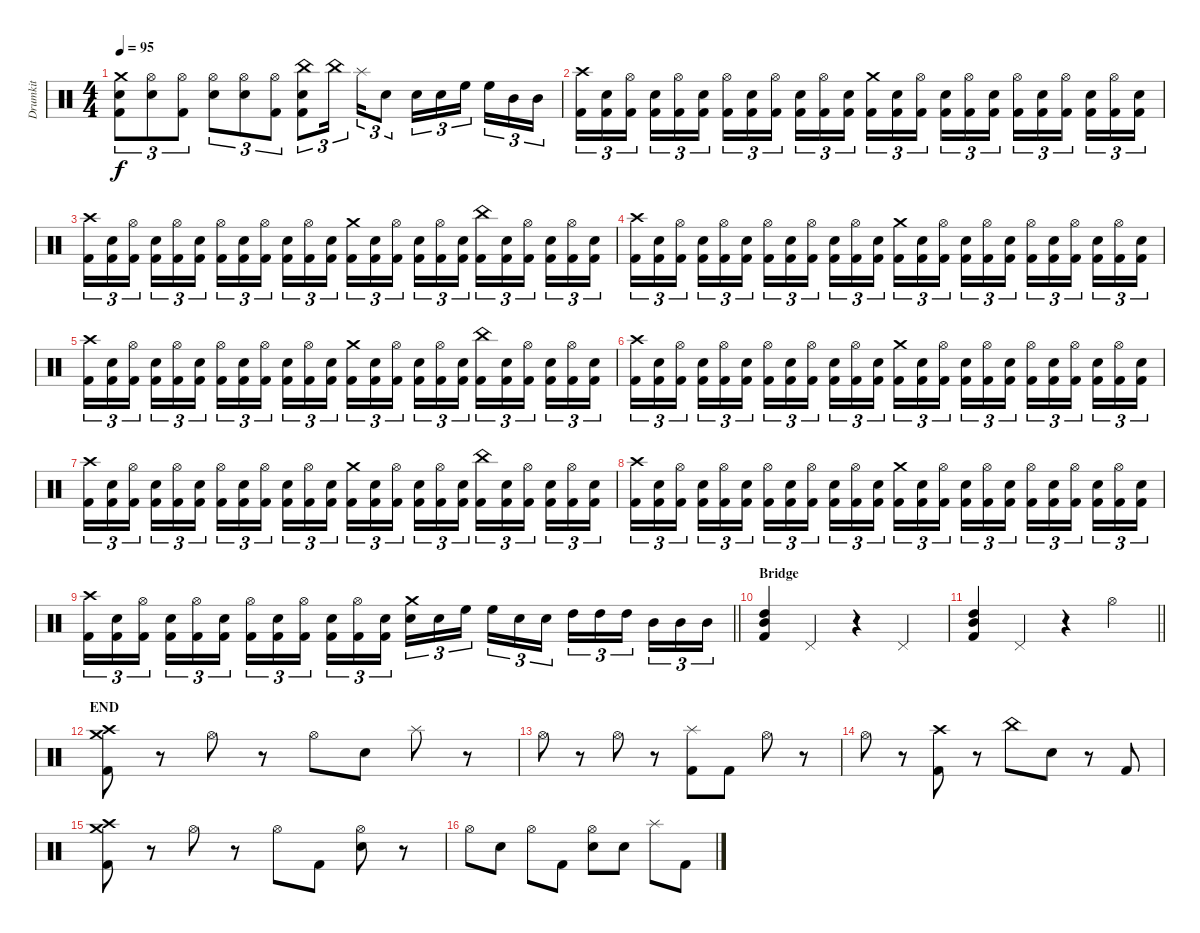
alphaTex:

\track ("Drumkit" "Drumkit") {instrument percussion}
\staff {score}
\articulation defaults
\ts (4 4)
\tempo 95
\clef neutral
\ks c
("Crash medium (hit)" "Electric Snare (hit)" "Kick (hit) 2").8{tu (3 2) dy f} ("Hi-Hat (open)" "Electric Snare (hit)").8{tu (3 2)} ("Hi-Hat (open)" "Kick (hit) 2").8{tu (3 2)} ("Hi-Hat (open)" "Electric Snare (hit)").8{tu (3 2)} ("Hi-Hat (open)" "Electric Snare (hit)").8{tu (3 2)} ("Hi-Hat (open)" "Kick (hit) 2").8{tu (3 2)} ("China (hit)" "Electric Snare (hit)" "Kick (hit) 2").8{tu (3 2)} "China (hit)".16{tu (3 2) beam splitsecondary} "Splash (hit)".16{tu (3 2)} "Electric Snare (hit)".8{tu (3 2)} "Electric Snare (hit)".16{tu (3 2)} "Electric Snare (hit)".16{tu (3 2)} "High Floor Tom (hit)".16{tu (3 2) beam splitsecondary} "High Floor Tom (hit)".16{tu (3 2)} "Mid Tom (hit)".16{tu (3 2)} "Mid Tom (hit)".16{tu (3 2)} |
("Crash high (hit)" "Kick (hit) 2").16{tu (3 2)} ("Electric Snare (hit)" "Kick (hit) 2").16{tu (3 2)} ("Hi-Hat (open)" "Kick (hit) 2").16{tu (3 2) beam splitsecondary} ("Electric Snare (hit)" "Kick (hit) 2").16{tu (3 2)} ("Hi-Hat (open)" "Kick (hit) 2").16{tu (3 2)} ("Electric Snare (hit)" "Kick (hit) 2").16{tu (3 2)} ("Hi-Hat (open)" "Kick (hit) 2").16{tu (3 2)} ("Electric Snare (hit)" "Kick (hit) 2").16{tu (3 2)} ("Hi-Hat (open)" "Kick (hit) 2").16{tu (3 2) beam splitsecondary} ("Electric Snare (hit)" "Kick (hit) 2").16{tu (3 2)} ("Hi-Hat (open)" "Kick (hit) 2").16{tu (3 2)} ("Electric Snare (hit)" "Kick (hit) 2").16{tu (3 2)} ("Crash medium (hit)" "Kick (hit) 2").16{tu (3 2)} ("Electric Snare (hit)" "Kick (hit) 2").16{tu (3 2)} ("Hi-Hat (open)" "Kick (hit) 2").16{tu (3 2) beam splitsecondary} ("Electric Snare (hit)" "Kick (hit) 2").16{tu (3 2)} ("Hi-Hat (open)" "Kick (hit) 2").16{tu (3 2)} ("Electric Snare (hit)" "Kick (hit) 2").16{tu (3 2)} ("Hi-Hat (open)" "Kick (hit) 2").16{tu (3 2)} ("Electric Snare (hit)" "Kick (hit) 2").16{tu (3 2)} ("Hi-Hat (open)" "Kick (hit) 2").16{tu (3 2) beam splitsecondary} ("Electric Snare (hit)" "Kick (hit) 2").16{tu (3 2)} ("Hi-Hat (open)" "Kick (hit) 2").16{tu (3 2)} ("Electric Snare (hit)" "Kick (hit) 2").16{tu (3 2)} |
("Crash high (hit)" "Kick (hit) 2").16{tu (3 2)} ("Electric Snare (hit)" "Kick (hit) 2").16{tu (3 2)} ("Hi-Hat (open)" "Kick (hit) 2").16{tu (3 2) beam splitsecondary} ("Electric Snare (hit)" "Kick (hit) 2").16{tu (3 2)} ("Hi-Hat (open)" "Kick (hit) 2").16{tu (3 2)} ("Electric Snare (hit)" "Kick (hit) 2").16{tu (3 2)} ("Hi-Hat (open)" "Kick (hit) 2").16{tu (3 2)} ("Electric Snare (hit)" "Kick (hit) 2").16{tu (3 2)} ("Hi-Hat (open)" "Kick (hit) 2").16{tu (3 2) beam splitsecondary} ("Electric Snare (hit)" "Kick (hit) 2").16{tu (3 2)} ("Hi-Hat (open)" "Kick (hit) 2").16{tu (3 2)} ("Electric Snare (hit)" "Kick (hit) 2").16{tu (3 2)} ("Crash medium (hit)" "Kick (hit) 2").16{tu (3 2)} ("Electric Snare (hit)" "Kick (hit) 2").16{tu (3 2)} ("Hi-Hat (open)" "Kick (hit) 2").16{tu (3 2) beam splitsecondary} ("Electric Snare (hit)" "Kick (hit) 2").16{tu (3 2)} ("Hi-Hat (open)" "Kick (hit) 2").16{tu (3 2)} ("Electric Snare (hit)" "Kick (hit) 2").16{tu (3 2)} ("China (hit)" "Kick (hit) 2").16{tu (3 2)} ("Electric Snare (hit)" "Kick (hit) 2").16{tu (3 2)} ("Hi-Hat (open)" "Kick (hit) 2").16{tu (3 2) beam splitsecondary} ("Electric Snare (hit)" "Kick (hit) 2").16{tu (3 2)} ("Hi-Hat (open)" "Kick (hit) 2").16{tu (3 2)} ("Electric Snare (hit)" "Kick (hit) 2").16{tu (3 2)} |
("Crash high (hit)" "Kick (hit) 2").16{tu (3 2)} ("Electric Snare (hit)" "Kick (hit) 2").16{tu (3 2)} ("Hi-Hat (open)" "Kick (hit) 2").16{tu (3 2) beam splitsecondary} ("Electric Snare (hit)" "Kick (hit) 2").16{tu (3 2)} ("Hi-Hat (open)" "Kick (hit) 2").16{tu (3 2)} ("Electric Snare (hit)" "Kick (hit) 2").16{tu (3 2)} ("Hi-Hat (open)" "Kick (hit) 2").16{tu (3 2)} ("Electric Snare (hit)" "Kick (hit) 2").16{tu (3 2)} ("Hi-Hat (open)" "Kick (hit) 2").16{tu (3 2) beam splitsecondary} ("Electric Snare (hit)" "Kick (hit) 2").16{tu (3 2)} ("Hi-Hat (open)" "Kick (hit) 2").16{tu (3 2)} ("Electric Snare (hit)" "Kick (hit) 2").16{tu (3 2)} ("Crash medium (hit)" "Kick (hit) 2").16{tu (3 2)} ("Electric Snare (hit)" "Kick (hit) 2").16{tu (3 2)} ("Hi-Hat (open)" "Kick (hit) 2").16{tu (3 2) beam splitsecondary} ("Electric Snare (hit)" "Kick (hit) 2").16{tu (3 2)} ("Hi-Hat (open)" "Kick (hit) 2").16{tu (3 2)} ("Electric Snare (hit)" "Kick (hit) 2").16{tu (3 2)} ("Hi-Hat (open)" "Kick (hit) 2").16{tu (3 2)} ("Electric Snare (hit)" "Kick (hit) 2").16{tu (3 2)} ("Hi-Hat (open)" "Kick (hit) 2").16{tu (3 2) beam splitsecondary} ("Electric Snare (hit)" "Kick (hit) 2").16{tu (3 2)} ("Hi-Hat (open)" "Kick (hit) 2").16{tu (3 2)} ("Electric Snare (hit)" "Kick (hit) 2").16{tu (3 2)} |
("Crash high (hit)" "Kick (hit) 2").16{tu (3 2)} ("Electric Snare (hit)" "Kick (hit) 2").16{tu (3 2)} ("Hi-Hat (open)" "Kick (hit) 2").16{tu (3 2) beam splitsecondary} ("Electric Snare (hit)" "Kick (hit) 2").16{tu (3 2)} ("Hi-Hat (open)" "Kick (hit) 2").16{tu (3 2)} ("Electric Snare (hit)" "Kick (hit) 2").16{tu (3 2)} ("Hi-Hat (open)" "Kick (hit) 2").16{tu (3 2)} ("Electric Snare (hit)" "Kick (hit) 2").16{tu (3 2)} ("Hi-Hat (open)" "Kick (hit) 2").16{tu (3 2) beam splitsecondary} ("Electric Snare (hit)" "Kick (hit) 2").16{tu (3 2)} ("Hi-Hat (open)" "Kick (hit) 2").16{tu (3 2)} ("Electric Snare (hit)" "Kick (hit) 2").16{tu (3 2)} ("Crash medium (hit)" "Kick (hit) 2").16{tu (3 2)} ("Electric Snare (hit)" "Kick (hit) 2").16{tu (3 2)} ("Hi-Hat (open)" "Kick (hit) 2").16{tu (3 2) beam splitsecondary} ("Electric Snare (hit)" "Kick (hit) 2").16{tu (3 2)} ("Hi-Hat (open)" "Kick (hit) 2").16{tu (3 2)} ("Electric Snare (hit)" "Kick (hit) 2").16{tu (3 2)} ("China (hit)" "Kick (hit) 2").16{tu (3 2)} ("Electric Snare (hit)" "Kick (hit) 2").16{tu (3 2)} ("Hi-Hat (open)" "Kick (hit) 2").16{tu (3 2) beam splitsecondary} ("Electric Snare (hit)" "Kick (hit) 2").16{tu (3 2)} ("Hi-Hat (open)" "Kick (hit) 2").16{tu (3 2)} ("Electric Snare (hit)" "Kick (hit) 2").16{tu (3 2)} |
("Crash high (hit)" "Kick (hit) 2").16{tu (3 2)} ("Electric Snare (hit)" "Kick (hit) 2").16{tu (3 2)} ("Hi-Hat (open)" "Kick (hit) 2").16{tu (3 2) beam splitsecondary} ("Electric Snare (hit)" "Kick (hit) 2").16{tu (3 2)} ("Hi-Hat (open)" "Kick (hit) 2").16{tu (3 2)} ("Electric Snare (hit)" "Kick (hit) 2").16{tu (3 2)} ("Hi-Hat (open)" "Kick (hit) 2").16{tu (3 2)} ("Electric Snare (hit)" "Kick (hit) 2").16{tu (3 2)} ("Hi-Hat (open)" "Kick (hit) 2").16{tu (3 2) beam splitsecondary} ("Electric Snare (hit)" "Kick (hit) 2").16{tu (3 2)} ("Hi-Hat (open)" "Kick (hit) 2").16{tu (3 2)} ("Electric Snare (hit)" "Kick (hit) 2").16{tu (3 2)} ("Crash medium (hit)" "Kick (hit) 2").16{tu (3 2)} ("Electric Snare (hit)" "Kick (hit) 2").16{tu (3 2)} ("Hi-Hat (open)" "Kick (hit) 2").16{tu (3 2) beam splitsecondary} ("Electric Snare (hit)" "Kick (hit) 2").16{tu (3 2)} ("Hi-Hat (open)" "Kick (hit) 2").16{tu (3 2)} ("Electric Snare (hit)" "Kick (hit) 2").16{tu (3 2)} ("Hi-Hat (open)" "Kick (hit) 2").16{tu (3 2)} ("Electric Snare (hit)" "Kick (hit) 2").16{tu (3 2)} ("Hi-Hat (open)" "Kick (hit) 2").16{tu (3 2) beam splitsecondary} ("Electric Snare (hit)" "Kick (hit) 2").16{tu (3 2)} ("Hi-Hat (open)" "Kick (hit) 2").16{tu (3 2)} ("Electric Snare (hit)" "Kick (hit) 2").16{tu (3 2)} |
("Crash high (hit)" "Kick (hit) 2").16{tu (3 2)} ("Electric Snare (hit)" "Kick (hit) 2").16{tu (3 2)} ("Hi-Hat (open)" "Kick (hit) 2").16{tu (3 2) beam splitsecondary} ("Electric Snare (hit)" "Kick (hit) 2").16{tu (3 2)} ("Hi-Hat (open)" "Kick (hit) 2").16{tu (3 2)} ("Electric Snare (hit)" "Kick (hit) 2").16{tu (3 2)} ("Hi-Hat (open)" "Kick (hit) 2").16{tu (3 2)} ("Electric Snare (hit)" "Kick (hit) 2").16{tu (3 2)} ("Hi-Hat (open)" "Kick (hit) 2").16{tu (3 2) beam splitsecondary} ("Electric Snare (hit)" "Kick (hit) 2").16{tu (3 2)} ("Hi-Hat (open)" "Kick (hit) 2").16{tu (3 2)} ("Electric Snare (hit)" "Kick (hit) 2").16{tu (3 2)} ("Crash medium (hit)" "Kick (hit) 2").16{tu (3 2)} ("Electric Snare (hit)" "Kick (hit) 2").16{tu (3 2)} ("Hi-Hat (open)" "Kick (hit) 2").16{tu (3 2) beam splitsecondary} ("Electric Snare (hit)" "Kick (hit) 2").16{tu (3 2)} ("Hi-Hat (open)" "Kick (hit) 2").16{tu (3 2)} ("Electric Snare (hit)" "Kick (hit) 2").16{tu (3 2)} ("China (hit)" "Kick (hit) 2").16{tu (3 2)} ("Electric Snare (hit)" "Kick (hit) 2").16{tu (3 2)} ("Hi-Hat (open)" "Kick (hit) 2").16{tu (3 2) beam splitsecondary} ("Electric Snare (hit)" "Kick (hit) 2").16{tu (3 2)} ("Hi-Hat (open)" "Kick (hit) 2").16{tu (3 2)} ("Electric Snare (hit)" "Kick (hit) 2").16{tu (3 2)} |
("Crash high (hit)" "Kick (hit) 2").16{tu (3 2)} ("Electric Snare (hit)" "Kick (hit) 2").16{tu (3 2)} ("Hi-Hat (open)" "Kick (hit) 2").16{tu (3 2) beam splitsecondary} ("Electric Snare (hit)" "Kick (hit) 2").16{tu (3 2)} ("Hi-Hat (open)" "Kick (hit) 2").16{tu (3 2)} ("Electric Snare (hit)" "Kick (hit) 2").16{tu (3 2)} ("Hi-Hat (open)" "Kick (hit) 2").16{tu (3 2)} ("Electric Snare (hit)" "Kick (hit) 2").16{tu (3 2)} ("Hi-Hat (open)" "Kick (hit) 2").16{tu (3 2) beam splitsecondary} ("Electric Snare (hit)" "Kick (hit) 2").16{tu (3 2)} ("Hi-Hat (open)" "Kick (hit) 2").16{tu (3 2)} ("Electric Snare (hit)" "Kick (hit) 2").16{tu (3 2)} ("Crash medium (hit)" "Kick (hit) 2").16{tu (3 2)} ("Electric Snare (hit)" "Kick (hit) 2").16{tu (3 2)} ("Hi-Hat (open)" "Kick (hit) 2").16{tu (3 2) beam splitsecondary} ("Electric Snare (hit)" "Kick (hit) 2").16{tu (3 2)} ("Hi-Hat (open)" "Kick (hit) 2").16{tu (3 2)} ("Electric Snare (hit)" "Kick (hit) 2").16{tu (3 2)} ("Hi-Hat (open)" "Kick (hit) 2").16{tu (3 2)} ("Electric Snare (hit)" "Kick (hit) 2").16{tu (3 2)} ("Hi-Hat (open)" "Kick (hit) 2").16{tu (3 2) beam splitsecondary} ("Electric Snare (hit)" "Kick (hit) 2").16{tu (3 2)} ("Hi-Hat (open)" "Kick (hit) 2").16{tu (3 2)} ("Electric Snare (hit)" "Kick (hit) 2").16{tu (3 2)} |
\barLineRight lightlight
("Crash high (hit)" "Kick (hit) 2").16{tu (3 2)} ("Electric Snare (hit)" "Kick (hit) 2").16{tu (3 2)} ("Hi-Hat (open)" "Kick (hit) 2").16{tu (3 2) beam splitsecondary} ("Electric Snare (hit)" "Kick (hit) 2").16{tu (3 2)} ("Hi-Hat (open)" "Kick (hit) 2").16{tu (3 2)} ("Electric Snare (hit)" "Kick (hit) 2").16{tu (3 2)} ("Hi-Hat (open)" "Kick (hit) 2").16{tu (3 2)} ("Electric Snare (hit)" "Kick (hit) 2").16{tu (3 2)} ("Hi-Hat (open)" "Kick (hit) 2").16{tu (3 2) beam splitsecondary} ("Electric Snare (hit)" "Kick (hit) 2").16{tu (3 2)} ("Hi-Hat (open)" "Kick (hit) 2").16{tu (3 2)} ("Electric Snare (hit)" "Kick (hit) 2").16{tu (3 2)} ("Crash medium (hit)" "Electric Snare (hit)").16{tu (3 2)} "Electric Snare (hit)".16{tu (3 2)} "High Floor Tom (hit)".16{tu (3 2) beam splitsecondary} "High Floor Tom (hit)".16{tu (3 2)} "Electric Snare (hit)".16{tu (3 2)} "Electric Snare (hit)".16{tu (3 2)} "High Tom (hit)".16{tu (3 2)} "High Tom (hit)".16{tu (3 2)} "High Tom (hit)".16{tu (3 2) beam splitsecondary} "Mid Tom (hit)".16{tu (3 2)} "Mid Tom (hit)".16{tu (3 2)} "Mid Tom (hit)".16{tu (3 2)} |
\section ("" "Bridge")
("Mid Tom (hit)" "High Tom (hit)" "Kick (hit) 2").4 "Pedal Hi-Hat (hit)".4 r.4 "Pedal Hi-Hat (hit)".4 |
\barLineRight lightlight
("High Tom (hit)" "Mid Tom (hit)" "Kick (hit) 2").4 "Pedal Hi-Hat (hit)".4 r.4 "Hi-Hat (open)".4 |
\section ("" "END")
("Crash medium (hit)" "Crash high (hit)" "Kick (hit) 2").8 r.8 "Hi-Hat (open)".8 r.8 "Hi-Hat (open)".8 "Electric Snare (hit)".8 "Splash (hit)".8 r.8 |
"Hi-Hat (open)".8 r.8 "Hi-Hat (open)".8 r.8 ("Splash (hit)" "Kick (hit) 2").8 "Kick (hit) 2".8 "Hi-Hat (open)".8 r.8 |
"Hi-Hat (open)".8 r.8 ("Crash high (hit)" "Kick (hit) 2").8 r.8 "China (hit)".8 "Electric Snare (hit)".8 r.8 "Kick (hit) 2".8 |
("Crash high (hit)" "Crash medium (hit)" "Kick (hit) 2").8 r.8 "Hi-Hat (open)".8 r.8 "Hi-Hat (open)".8 "Kick (hit) 2".8 ("Hi-Hat (open)" "Electric Snare (hit)").8 r.8 |
"Hi-Hat (open)".8 "Electric Snare (hit)".8 "Hi-Hat (open)".8 "Kick (hit) 2".8 ("Hi-Hat (open)" "Electric Snare (hit)").8 "Electric Snare (hit)".8 "Splash (hit)".8 "Kick (hit) 2".8
